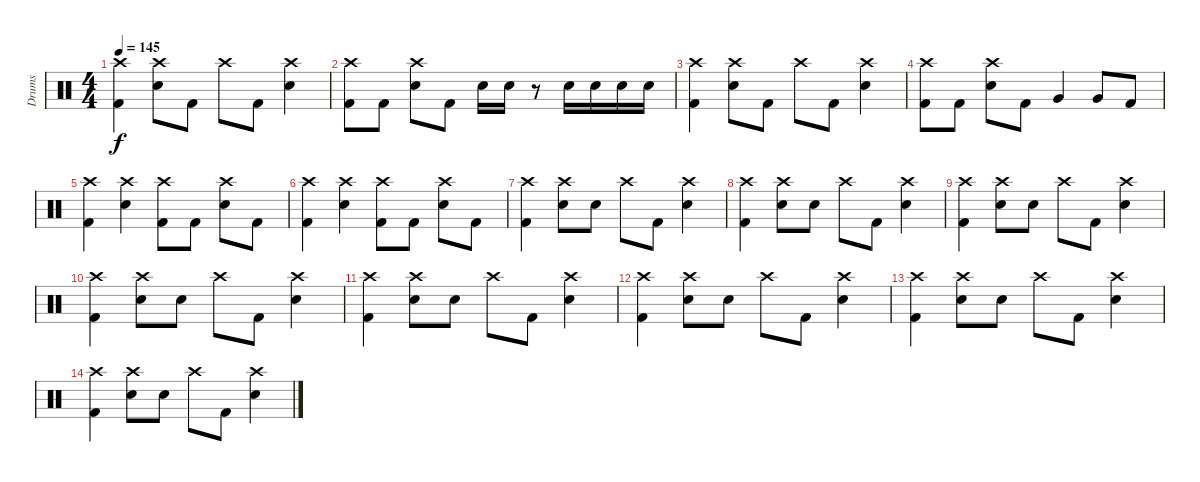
\track ("Drums" "Drums") {instrument percussion}
\staff {score}
\articulation defaults
\ts (4 4)
\tempo 145
\clef neutral
\ks c
("Crash high (hit)" "Kick (hit) 2").4{dy f} ("Crash high (hit)" "Electric Snare (hit)").8 "Kick (hit) 2".8 "Crash high (hit)".8 "Kick (hit) 2".8 ("Crash high (hit)" "Electric Snare (hit)").4 |
("Crash high (hit)" "Kick (hit) 2").8 "Kick (hit) 2".8 ("Crash high (hit)" "Electric Snare (hit)").8 "Kick (hit) 2".8 "Electric Snare (hit)".16 "Electric Snare (hit)".16 r.8 "Electric Snare (hit)".16 "Electric Snare (hit)".16 "Electric Snare (hit)".16 "Electric Snare (hit)".16 |
("Crash high (hit)" "Kick (hit) 2").4 ("Crash high (hit)" "Electric Snare (hit)").8 "Kick (hit) 2".8 "Crash high (hit)".8 "Kick (hit) 2".8 ("Crash high (hit)" "Electric Snare (hit)").4 |
("Crash high (hit)" "Kick (hit) 2").8 "Kick (hit) 2".8 ("Crash high (hit)" "Electric Snare (hit)").8 "Kick (hit) 2".8 "Very Low Tom (hit)".4 "Very Low Tom (hit)".8 "Kick (hit) 2".8 |
("Crash high (hit)" "Kick (hit) 2").4 ("Crash high (hit)" "Electric Snare (hit)").4 ("Crash high (hit)" "Kick (hit) 2").8 "Kick (hit) 2".8 ("Crash high (hit)" "Electric Snare (hit)").8 "Kick (hit) 2".8 |
("Crash high (hit)" "Kick (hit) 2").4 ("Crash high (hit)" "Electric Snare (hit)").4 ("Crash high (hit)" "Kick (hit) 2").8 "Kick (hit) 2".8 ("Crash high (hit)" "Electric Snare (hit)").8 "Kick (hit) 2".8 |
("Crash high (hit)" "Kick (hit) 2").4 ("Crash high (hit)" "Electric Snare (hit)").8 "Electric Snare (hit)".8 "Crash high (hit)".8 "Kick (hit) 2".8 ("Crash high (hit)" "Electric Snare (hit)").4 |
("Crash high (hit)" "Kick (hit) 2").4 ("Crash high (hit)" "Electric Snare (hit)").8 "Electric Snare (hit)".8 "Crash high (hit)".8 "Kick (hit) 2".8 ("Crash high (hit)" "Electric Snare (hit)").4 |
("Crash high (hit)" "Kick (hit) 2").4 ("Crash high (hit)" "Electric Snare (hit)").8 "Electric Snare (hit)".8 "Crash high (hit)".8 "Kick (hit) 2".8 ("Crash high (hit)" "Electric Snare (hit)").4 |
("Crash high (hit)" "Kick (hit) 2").4 ("Crash high (hit)" "Electric Snare (hit)").8 "Electric Snare (hit)".8 "Crash high (hit)".8 "Kick (hit) 2".8 ("Crash high (hit)" "Electric Snare (hit)").4 |
("Crash high (hit)" "Kick (hit) 2").4 ("Crash high (hit)" "Electric Snare (hit)").8 "Electric Snare (hit)".8 "Crash high (hit)".8 "Kick (hit) 2".8 ("Crash high (hit)" "Electric Snare (hit)").4 |
("Crash high (hit)" "Kick (hit) 2").4 ("Crash high (hit)" "Electric Snare (hit)").8 "Electric Snare (hit)".8 "Crash high (hit)".8 "Kick (hit) 2".8 ("Crash high (hit)" "Electric Snare (hit)").4 |
("Crash high (hit)" "Kick (hit) 2").4 ("Crash high (hit)" "Electric Snare (hit)").8 "Electric Snare (hit)".8 "Crash high (hit)".8 "Kick (hit) 2".8 ("Crash high (hit)" "Electric Snare (hit)").4 |
("Crash high (hit)" "Kick (hit) 2").4 ("Crash high (hit)" "Electric Snare (hit)").8 "Electric Snare (hit)".8 "Crash high (hit)".8 "Kick (hit) 2".8 ("Crash high (hit)" "Electric Snare (hit)").4
